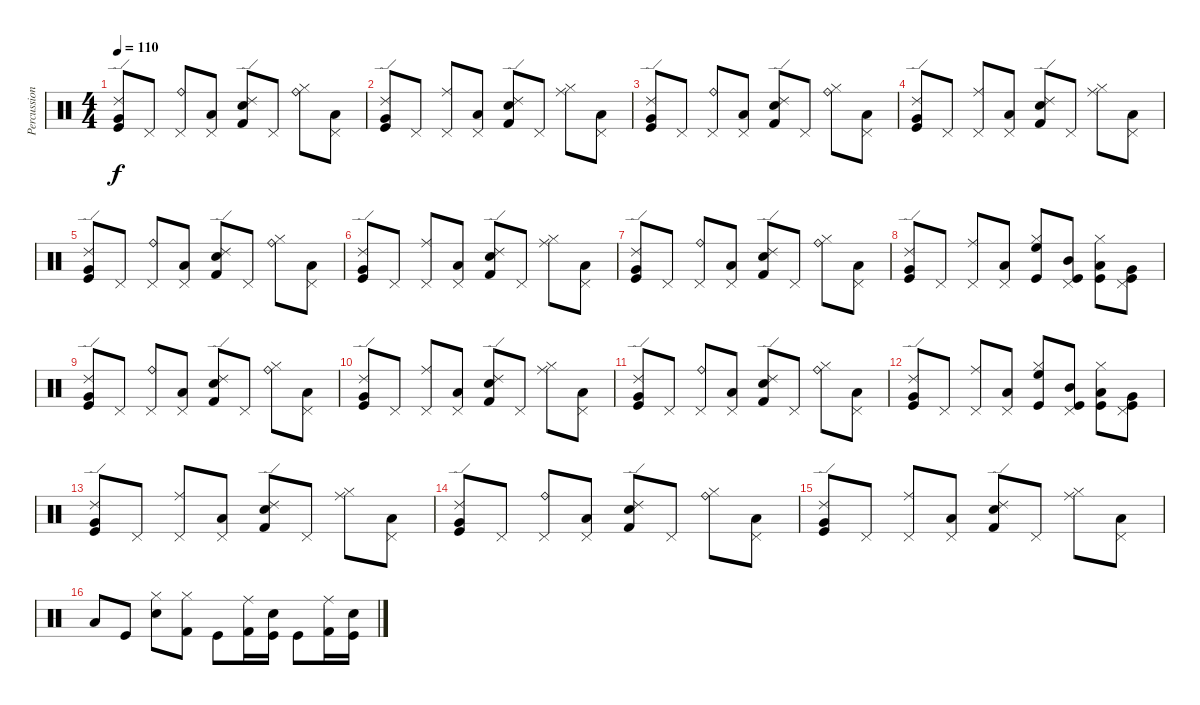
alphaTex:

\track ("Percussions" "Percussion") {instrument percussion}
\staff {score}
\articulation defaults
\ts (4 4)
\tempo 110
\clef neutral
\ks c
("Ride (edge) 2" "Very Low Tom (hit)" "Kick (hit)").8{dy f} "Pedal Hi-Hat (hit)".8 ("Ride (bell)" "Pedal Hi-Hat (hit)").8 ("Pedal Hi-Hat (hit)" "Low Tom (hit)").8 ("Ride (edge) 2" "Kick (hit) 2" "Snare (hit) 2").8 "Pedal Hi-Hat (hit)".8 ("Hi-Hat (closed)" "Ride (bell)").8 ("Pedal Hi-Hat (hit)" "Low Tom (hit)").8 |
("Ride (edge) 2" "Very Low Tom (hit)" "Kick (hit)").8 "Pedal Hi-Hat (hit)".8 ("Ride (middle)" "Pedal Hi-Hat (hit)").8 ("Pedal Hi-Hat (hit)" "Low Tom (hit)").8 ("Ride (edge) 2" "Kick (hit) 2" "Snare (hit) 2").8 "Pedal Hi-Hat (hit)".8 ("Hi-Hat (closed)" "Ride (middle)").8 ("Pedal Hi-Hat (hit)" "Low Tom (hit)").8 |
("Ride (edge) 2" "Very Low Tom (hit)" "Kick (hit)").8 "Pedal Hi-Hat (hit)".8 ("Ride (bell)" "Pedal Hi-Hat (hit)").8 ("Pedal Hi-Hat (hit)" "Low Tom (hit)").8 ("Ride (edge) 2" "Kick (hit) 2" "Snare (hit) 2").8 "Pedal Hi-Hat (hit)".8 ("Hi-Hat (closed)" "Ride (bell)").8 ("Pedal Hi-Hat (hit)" "Low Tom (hit)").8 |
("Ride (edge) 2" "Very Low Tom (hit)" "Kick (hit)").8 "Pedal Hi-Hat (hit)".8 ("Ride (middle)" "Pedal Hi-Hat (hit)").8 ("Pedal Hi-Hat (hit)" "Low Tom (hit)").8 ("Ride (edge) 2" "Kick (hit) 2" "Snare (hit) 2").8 "Pedal Hi-Hat (hit)".8 ("Hi-Hat (closed)" "Ride (middle)").8 ("Pedal Hi-Hat (hit)" "Low Tom (hit)").8 |
("Ride (edge) 2" "Very Low Tom (hit)" "Kick (hit)").8 "Pedal Hi-Hat (hit)".8 ("Ride (bell)" "Pedal Hi-Hat (hit)").8 ("Pedal Hi-Hat (hit)" "Low Tom (hit)").8 ("Ride (edge) 2" "Kick (hit) 2" "Snare (hit) 2").8 "Pedal Hi-Hat (hit)".8 ("Hi-Hat (closed)" "Ride (bell)").8 ("Pedal Hi-Hat (hit)" "Low Tom (hit)").8 |
("Ride (edge) 2" "Very Low Tom (hit)" "Kick (hit)").8 "Pedal Hi-Hat (hit)".8 ("Ride (middle)" "Pedal Hi-Hat (hit)").8 ("Pedal Hi-Hat (hit)" "Low Tom (hit)").8 ("Ride (edge) 2" "Kick (hit) 2" "Snare (hit) 2").8 "Pedal Hi-Hat (hit)".8 ("Hi-Hat (closed)" "Ride (middle)").8 ("Pedal Hi-Hat (hit)" "Low Tom (hit)").8 |
("Ride (edge) 2" "Very Low Tom (hit)" "Kick (hit)").8 "Pedal Hi-Hat (hit)".8 ("Ride (bell)" "Pedal Hi-Hat (hit)").8 ("Pedal Hi-Hat (hit)" "Low Tom (hit)").8 ("Ride (edge) 2" "Kick (hit) 2" "Snare (hit) 2").8 "Pedal Hi-Hat (hit)".8 ("Hi-Hat (closed)" "Ride (bell)").8 ("Pedal Hi-Hat (hit)" "Low Tom (hit)").8 |
("Ride (edge) 2" "Very Low Tom (hit)" "Kick (hit)").8 "Pedal Hi-Hat (hit)".8 ("Ride (middle)" "Pedal Hi-Hat (hit)").8 ("Pedal Hi-Hat (hit)" "Low Tom (hit)").8 ("Hi-Hat (closed)" "Kick (hit)" "High Floor Tom (hit)").8 ("Pedal Hi-Hat (hit)" "Mid Tom (hit)" "Kick (hit)").8 ("Hi-Hat (closed)" "Low Tom (hit)" "Kick (hit)").8 ("Kick (hit)" "Pedal Hi-Hat (hit)" "Very Low Tom (hit)").8 |
("Ride (edge) 2" "Very Low Tom (hit)" "Kick (hit)").8 "Pedal Hi-Hat (hit)".8 ("Ride (bell)" "Pedal Hi-Hat (hit)").8 ("Pedal Hi-Hat (hit)" "Low Tom (hit)").8 ("Ride (edge) 2" "Kick (hit) 2" "Snare (hit) 2").8 "Pedal Hi-Hat (hit)".8 ("Hi-Hat (closed)" "Ride (bell)").8 ("Pedal Hi-Hat (hit)" "Low Tom (hit)").8 |
("Ride (edge) 2" "Very Low Tom (hit)" "Kick (hit)").8 "Pedal Hi-Hat (hit)".8 ("Ride (middle)" "Pedal Hi-Hat (hit)").8 ("Pedal Hi-Hat (hit)" "Low Tom (hit)").8 ("Ride (edge) 2" "Kick (hit) 2" "Snare (hit) 2").8 "Pedal Hi-Hat (hit)".8 ("Hi-Hat (closed)" "Ride (middle)").8 ("Pedal Hi-Hat (hit)" "Low Tom (hit)").8 |
("Ride (edge) 2" "Very Low Tom (hit)" "Kick (hit)").8 "Pedal Hi-Hat (hit)".8 ("Ride (bell)" "Pedal Hi-Hat (hit)").8 ("Pedal Hi-Hat (hit)" "Low Tom (hit)").8 ("Ride (edge) 2" "Kick (hit) 2" "Snare (hit) 2").8 "Pedal Hi-Hat (hit)".8 ("Hi-Hat (closed)" "Ride (bell)").8 ("Pedal Hi-Hat (hit)" "Low Tom (hit)").8 |
("Ride (edge) 2" "Very Low Tom (hit)" "Kick (hit)").8 "Pedal Hi-Hat (hit)".8 ("Ride (middle)" "Pedal Hi-Hat (hit)").8 ("Pedal Hi-Hat (hit)" "Low Tom (hit)").8 ("Hi-Hat (closed)" "Kick (hit)" "High Floor Tom (hit)").8 ("Pedal Hi-Hat (hit)" "Mid Tom (hit)" "Kick (hit)").8 ("Hi-Hat (closed)" "Low Tom (hit)" "Kick (hit)").8 ("Kick (hit)" "Pedal Hi-Hat (hit)" "Very Low Tom (hit)").8 |
("Ride (edge) 2" "Very Low Tom (hit)" "Kick (hit)").8 "Pedal Hi-Hat (hit)".8 ("Ride (middle)" "Pedal Hi-Hat (hit)").8 ("Pedal Hi-Hat (hit)" "Low Tom (hit)").8 ("Ride (edge) 2" "Kick (hit) 2" "Snare (hit) 2").8 "Pedal Hi-Hat (hit)".8 ("Hi-Hat (closed)" "Ride (middle)").8 ("Pedal Hi-Hat (hit)" "Low Tom (hit)").8 |
("Ride (edge) 2" "Very Low Tom (hit)" "Kick (hit)").8 "Pedal Hi-Hat (hit)".8 ("Ride (bell)" "Pedal Hi-Hat (hit)").8 ("Pedal Hi-Hat (hit)" "Low Tom (hit)").8 ("Ride (edge) 2" "Kick (hit) 2" "Snare (hit) 2").8 "Pedal Hi-Hat (hit)".8 ("Hi-Hat (closed)" "Ride (bell)").8 ("Pedal Hi-Hat (hit)" "Low Tom (hit)").8 |
("Ride (edge) 2" "Very Low Tom (hit)" "Kick (hit)").8 "Pedal Hi-Hat (hit)".8 ("Ride (middle)" "Pedal Hi-Hat (hit)").8 ("Pedal Hi-Hat (hit)" "Low Tom (hit)").8 ("Ride (edge) 2" "Kick (hit) 2" "Snare (hit) 2").8 "Pedal Hi-Hat (hit)".8 ("Hi-Hat (closed)" "Ride (middle)").8 ("Pedal Hi-Hat (hit)" "Low Tom (hit)").8 |
"Low Tom (hit)".8 "Kick (hit)".8 ("Snare (hit) 2" "Hi-Hat (closed)").8 ("Kick (hit) 2" "Hi-Hat (closed)").8 "Kick (hit)".8 ("Kick (hit) 2" "Ride (middle)").16 ("Kick (hit)" "Snare (hit) 2").16 "Kick (hit)".8 ("Kick (hit) 2" "Ride (middle)").16 ("Kick (hit)" "Snare (hit) 2").16
